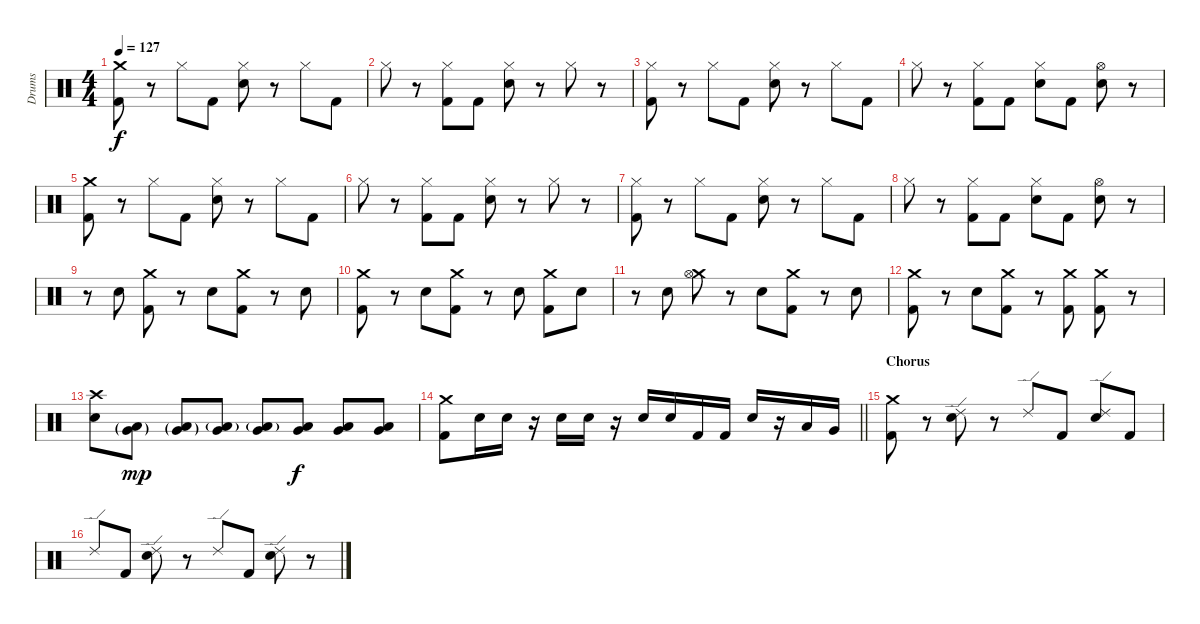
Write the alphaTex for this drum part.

\track ("Drums" "Drums") {instrument percussion}
\staff {score}
\articulation defaults
\ts (4 4)
\tempo 127
\clef neutral
\ks c
("Crash medium (hit)" "Kick (hit) 2").8{dy f} r.8 "Hi-Hat (closed)".8 "Kick (hit) 2".8 ("Hi-Hat (closed)" "Electric Snare (hit)").8 r.8 "Hi-Hat (closed)".8 "Kick (hit) 2".8 |
"Hi-Hat (closed)".8 r.8 ("Hi-Hat (closed)" "Kick (hit) 2").8 "Kick (hit) 2".8 ("Hi-Hat (closed)" "Electric Snare (hit)").8 r.8 "Hi-Hat (closed)".8 r.8 |
("Hi-Hat (closed)" "Kick (hit) 2").8 r.8 "Hi-Hat (closed)".8 "Kick (hit) 2".8 ("Hi-Hat (closed)" "Electric Snare (hit)").8 r.8 "Hi-Hat (closed)".8 "Kick (hit) 2".8 |
"Hi-Hat (closed)".8 r.8 ("Hi-Hat (closed)" "Kick (hit) 2").8 "Kick (hit) 2".8 ("Hi-Hat (closed)" "Electric Snare (hit)").8 "Kick (hit) 2".8 ("Hi-Hat (open)" "Electric Snare (hit)").8 r.8 |
("Crash medium (hit)" "Kick (hit) 2").8 r.8 "Hi-Hat (closed)".8 "Kick (hit) 2".8 ("Hi-Hat (closed)" "Electric Snare (hit)").8 r.8 "Hi-Hat (closed)".8 "Kick (hit) 2".8 |
"Hi-Hat (closed)".8 r.8 ("Hi-Hat (closed)" "Kick (hit) 2").8 "Kick (hit) 2".8 ("Hi-Hat (closed)" "Electric Snare (hit)").8 r.8 "Hi-Hat (closed)".8 r.8 |
("Hi-Hat (closed)" "Kick (hit) 2").8 r.8 "Hi-Hat (closed)".8 "Kick (hit) 2".8 ("Hi-Hat (closed)" "Electric Snare (hit)").8 r.8 "Hi-Hat (closed)".8 "Kick (hit) 2".8 |
"Hi-Hat (closed)".8 r.8 ("Hi-Hat (closed)" "Kick (hit) 2").8 "Kick (hit) 2".8 ("Hi-Hat (closed)" "Electric Snare (hit)").8 "Kick (hit) 2".8 ("Hi-Hat (open)" "Electric Snare (hit)").8 r.8 |
r.8 "Electric Snare (hit)".8 ("Crash medium (hit)" "Kick (hit) 2").8 r.8 "Electric Snare (hit)".8 ("Crash medium (hit)" "Kick (hit) 2").8 r.8 "Electric Snare (hit)".8 |
("Crash medium (hit)" "Kick (hit) 2").8 r.8 "Electric Snare (hit)".8 ("Crash medium (hit)" "Kick (hit) 2").8 r.8 "Electric Snare (hit)".8 ("Crash medium (hit)" "Kick (hit) 2").8 "Electric Snare (hit)".8 |
r.8 "Electric Snare (hit)".8 ("Crash medium (hit)" "Hi-Hat (open)").8 r.8 "Electric Snare (hit)".8 ("Crash medium (hit)" "Kick (hit) 2").8 r.8 "Electric Snare (hit)".8 |
("Crash medium (hit)" "Kick (hit) 2").8 r.8 "Electric Snare (hit)".8 ("Crash medium (hit)" "Kick (hit) 2").8 r.8 ("Crash medium (hit)" "Kick (hit) 2").8 ("Crash medium (hit)" "Kick (hit) 2").8 r.8 |
("Crash high (hit)" "Electric Snare (hit)").8{volume 12} ("Very Low Tom (hit)"{g} "Low Floor Tom (hit)"{g}).8{dy mp} ("Very Low Tom (hit)"{g} "Low Floor Tom (hit)"{g}).8 ("Very Low Tom (hit)" "Low Floor Tom (hit)"{g}).8 ("Very Low Tom (hit)" "Low Floor Tom (hit)"{g}).8 ("Very Low Tom (hit)" "Low Floor Tom (hit)").8{dy f} ("Very Low Tom (hit)" "Low Floor Tom (hit)").8 ("Very Low Tom (hit)" "Low Floor Tom (hit)").8 |
\barLineRight lightlight
("Crash medium (hit)" "Kick (hit) 2").8 "Electric Snare (hit)".16 "Electric Snare (hit)".16 r.16 "Electric Snare (hit)".16 "Electric Snare (hit)".16 r.16 "Electric Snare (hit)".16 "Electric Snare (hit)".16 "Kick (hit) 2".16 "Kick (hit) 2".16 "Electric Snare (hit)".16 r.16 "Low Tom (hit)".16 "Very Low Tom (hit)".16 |
\section ("" "Chorus")
("Crash medium (hit)" "Kick (hit) 2").8 r.8 ("Ride (edge) 2" "Electric Snare (hit)").8 r.8 "Ride (edge) 2".8 "Kick (hit) 2".8 ("Ride (edge) 2" "Electric Snare (hit)").8 "Kick (hit) 2".8 |
"Ride (edge) 2".8 "Kick (hit) 2".8 ("Ride (edge) 2" "Electric Snare (hit)").8 r.8 "Ride (edge) 2".8 "Kick (hit) 2".8 ("Ride (edge) 2" "Electric Snare (hit)").8 r.8
